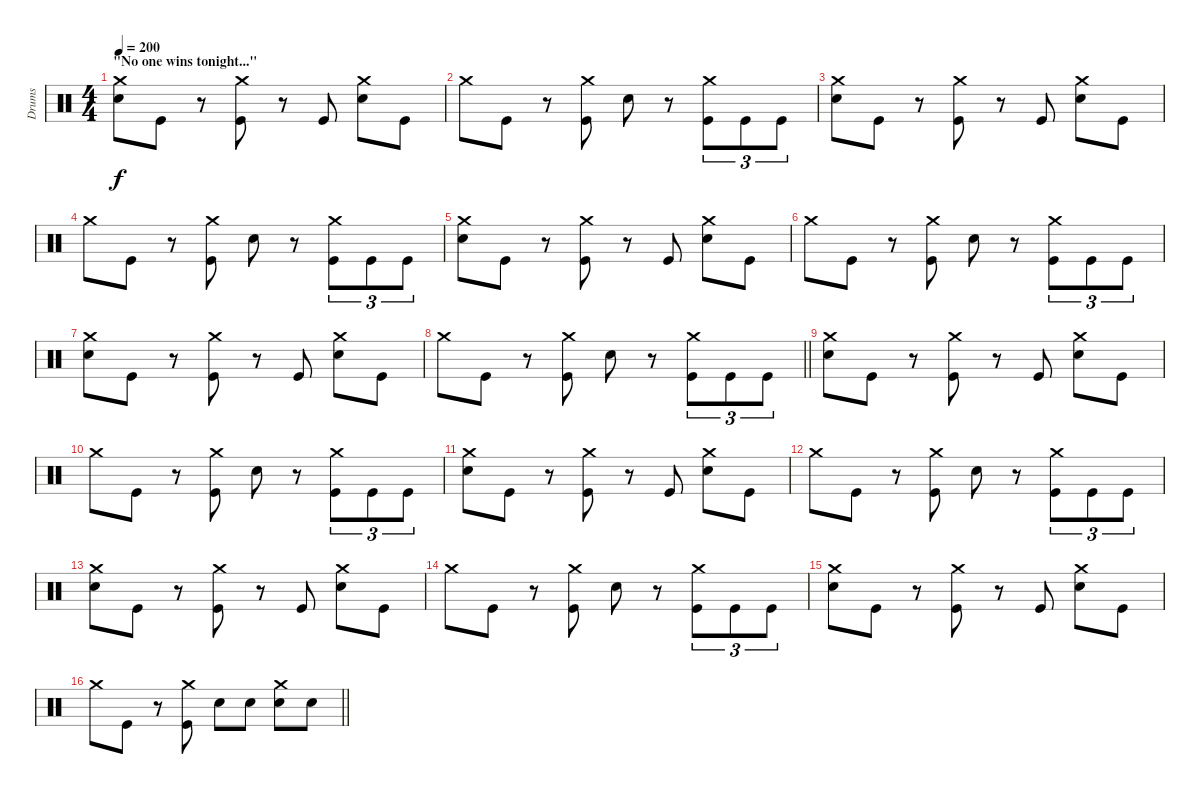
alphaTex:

\track ("Drums" "Drums") {instrument percussion}
\staff {score}
\articulation defaults
\ts (4 4)
\section ("" "\"No one wins tonight...\"")
\tempo 200
\clef neutral
\ks c
("Crash medium (hit)" "Electric Snare (hit)").8{dy f} "Kick (hit)".8 r.8 ("Crash medium (hit)" "Kick (hit)").8 r.8 "Kick (hit)".8 ("Crash medium (hit)" "Electric Snare (hit)").8 "Kick (hit)".8 |
"Crash medium (hit)".8 "Kick (hit)".8 r.8 ("Crash medium (hit)" "Kick (hit)").8 "Electric Snare (hit)".8 r.8 ("Crash medium (hit)" "Kick (hit)").8{tu (3 2)} "Kick (hit)".8{tu (3 2)} "Kick (hit)".8{tu (3 2)} |
("Crash medium (hit)" "Electric Snare (hit)").8 "Kick (hit)".8 r.8 ("Crash medium (hit)" "Kick (hit)").8 r.8 "Kick (hit)".8 ("Crash medium (hit)" "Electric Snare (hit)").8 "Kick (hit)".8 |
"Crash medium (hit)".8 "Kick (hit)".8 r.8 ("Crash medium (hit)" "Kick (hit)").8 "Electric Snare (hit)".8 r.8 ("Crash medium (hit)" "Kick (hit)").8{tu (3 2)} "Kick (hit)".8{tu (3 2)} "Kick (hit)".8{tu (3 2)} |
("Crash medium (hit)" "Electric Snare (hit)").8 "Kick (hit)".8 r.8 ("Crash medium (hit)" "Kick (hit)").8 r.8 "Kick (hit)".8 ("Crash medium (hit)" "Electric Snare (hit)").8 "Kick (hit)".8 |
"Crash medium (hit)".8 "Kick (hit)".8 r.8 ("Crash medium (hit)" "Kick (hit)").8 "Electric Snare (hit)".8 r.8 ("Crash medium (hit)" "Kick (hit)").8{tu (3 2)} "Kick (hit)".8{tu (3 2)} "Kick (hit)".8{tu (3 2)} |
("Crash medium (hit)" "Electric Snare (hit)").8 "Kick (hit)".8 r.8 ("Crash medium (hit)" "Kick (hit)").8 r.8 "Kick (hit)".8 ("Crash medium (hit)" "Electric Snare (hit)").8 "Kick (hit)".8 |
\barLineRight lightlight "Crash medium (hit)".8 "Kick (hit)".8
r.8 ("Crash medium (hit)" "Kick (hit)").8 "Electric Snare (hit)".8 r.8 ("Crash medium (hit)" "Kick (hit)").8{tu (3 2)} "Kick (hit)".8{tu (3 2)} "Kick (hit)".8{tu (3 2)} |
("Crash medium (hit)" "Electric Snare (hit)").8 "Kick (hit)".8 r.8 ("Crash medium (hit)" "Kick (hit)").8 r.8 "Kick (hit)".8 ("Crash medium (hit)" "Electric Snare (hit)").8 "Kick (hit)".8 |
"Crash medium (hit)".8 "Kick (hit)".8 r.8 ("Crash medium (hit)" "Kick (hit)").8 "Electric Snare (hit)".8 r.8 ("Crash medium (hit)" "Kick (hit)").8{tu (3 2)} "Kick (hit)".8{tu (3 2)} "Kick (hit)".8{tu (3 2)} |
("Crash medium (hit)" "Electric Snare (hit)").8 "Kick (hit)".8 r.8 ("Crash medium (hit)" "Kick (hit)").8 r.8 "Kick (hit)".8 ("Crash medium (hit)" "Electric Snare (hit)").8 "Kick (hit)".8 |
"Crash medium (hit)".8 "Kick (hit)".8 r.8 ("Crash medium (hit)" "Kick (hit)").8 "Electric Snare (hit)".8 r.8 ("Crash medium (hit)" "Kick (hit)").8{tu (3 2)} "Kick (hit)".8{tu (3 2)} "Kick (hit)".8{tu (3 2)} |
("Crash medium (hit)" "Electric Snare (hit)").8 "Kick (hit)".8 r.8 ("Crash medium (hit)" "Kick (hit)").8 r.8 "Kick (hit)".8 ("Crash medium (hit)" "Electric Snare (hit)").8 "Kick (hit)".8 |
"Crash medium (hit)".8 "Kick (hit)".8 r.8 ("Crash medium (hit)" "Kick (hit)").8 "Electric Snare (hit)".8 r.8 ("Crash medium (hit)" "Kick (hit)").8{tu (3 2)} "Kick (hit)".8{tu (3 2)} "Kick (hit)".8{tu (3 2)} |
("Crash medium (hit)" "Electric Snare (hit)").8 "Kick (hit)".8 r.8 ("Crash medium (hit)" "Kick (hit)").8 r.8 "Kick (hit)".8 ("Crash medium (hit)" "Electric Snare (hit)").8 "Kick (hit)".8 |
\barLineRight lightlight "Crash medium (hit)".8 "Kick (hit)".8
r.8 ("Crash medium (hit)" "Kick (hit)").8 "Electric Snare (hit)".8 "Electric Snare (hit)".8 ("Crash medium (hit)" "Electric Snare (hit)").8 "Electric Snare (hit)".8
